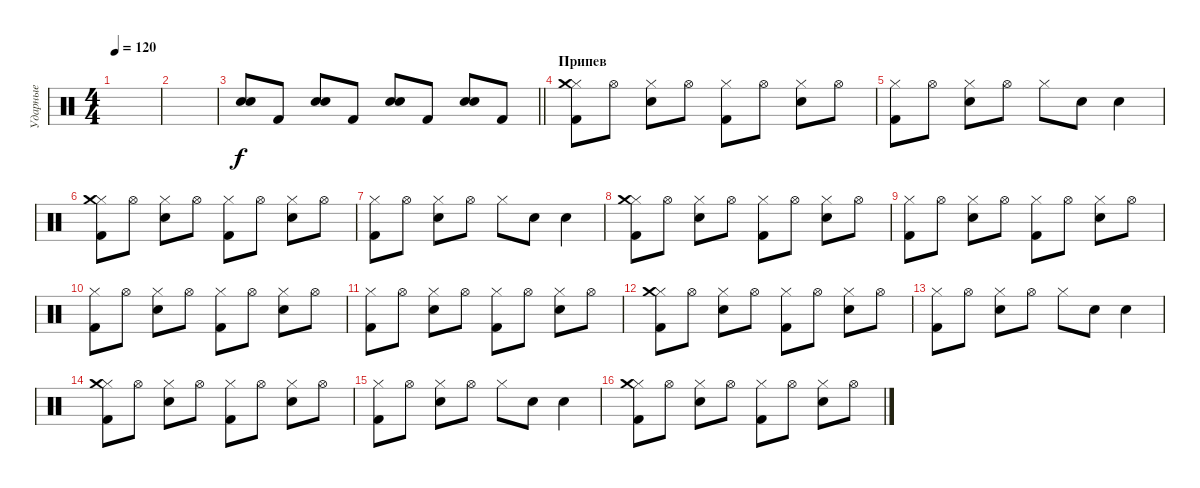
\track ("Ударные" "Ударные") {instrument percussion}
\staff {score}
\articulation defaults
\ts (4 4)
\tempo 120
\clef neutral
\ks c
|
|
\barLineRight lightlight
("Snare (hit) 2" "Snare (hit) 2").8{bd 240} "Kick (hit) 2".8 ("Snare (hit) 2" "Snare (hit) 2").8{bd 240} "Kick (hit) 2".8 ("Snare (hit) 2" "Snare (hit) 2").8{bd 240} "Kick (hit) 2".8 ("Snare (hit) 2" "Snare (hit) 2").8{bd 240} "Kick (hit) 2".8 |
\section ("" "Припев")
("Hi-Hat (closed)" "Kick (hit) 2" "Crash medium (hit)").8 "Hi-Hat (open)".8 ("Hi-Hat (closed)" "Snare (hit) 2").8 "Hi-Hat (open)".8 ("Hi-Hat (closed)" "Kick (hit) 2").8 "Hi-Hat (open)".8 ("Hi-Hat (closed)" "Snare (hit) 2").8 "Hi-Hat (open)".8 |
("Hi-Hat (closed)" "Kick (hit) 2").8 "Hi-Hat (open)".8 ("Hi-Hat (closed)" "Snare (hit) 2").8 "Hi-Hat (open)".8 "Hi-Hat (closed)".8 "Hand Clap (hit)".8 "Hand Clap (hit)".4 |
("Hi-Hat (closed)" "Kick (hit) 2" "Crash medium (hit)").8 "Hi-Hat (open)".8 ("Hi-Hat (closed)" "Snare (hit) 2").8 "Hi-Hat (open)".8 ("Hi-Hat (closed)" "Kick (hit) 2").8 "Hi-Hat (open)".8 ("Hi-Hat (closed)" "Snare (hit) 2").8 "Hi-Hat (open)".8 |
("Hi-Hat (closed)" "Kick (hit) 2").8 "Hi-Hat (open)".8 ("Hi-Hat (closed)" "Snare (hit) 2").8 "Hi-Hat (open)".8 "Hi-Hat (closed)".8 "Hand Clap (hit)".8 "Hand Clap (hit)".4 |
("Hi-Hat (closed)" "Kick (hit) 2" "Crash medium (hit)").8 "Hi-Hat (open)".8 ("Hi-Hat (closed)" "Snare (hit) 2").8 "Hi-Hat (open)".8 ("Hi-Hat (closed)" "Kick (hit) 2").8 "Hi-Hat (open)".8 ("Hi-Hat (closed)" "Snare (hit) 2").8 "Hi-Hat (open)".8 |
("Hi-Hat (closed)" "Kick (hit) 2").8 "Hi-Hat (open)".8 ("Hi-Hat (closed)" "Snare (hit) 2").8 "Hi-Hat (open)".8 ("Hi-Hat (closed)" "Kick (hit) 2").8 "Hi-Hat (open)".8 ("Hi-Hat (closed)" "Snare (hit) 2").8 "Hi-Hat (open)".8 |
("Hi-Hat (closed)" "Kick (hit) 2").8 "Hi-Hat (open)".8 ("Hi-Hat (closed)" "Snare (hit) 2").8 "Hi-Hat (open)".8 ("Hi-Hat (closed)" "Kick (hit) 2").8 "Hi-Hat (open)".8 ("Hi-Hat (closed)" "Snare (hit) 2").8 "Hi-Hat (open)".8 |
("Hi-Hat (closed)" "Kick (hit) 2").8 "Hi-Hat (open)".8 ("Hi-Hat (closed)" "Snare (hit) 2").8 "Hi-Hat (open)".8 ("Hi-Hat (closed)" "Kick (hit) 2").8 "Hi-Hat (open)".8 ("Hi-Hat (closed)" "Snare (hit) 2").8 "Hi-Hat (open)".8 |
("Hi-Hat (closed)" "Kick (hit) 2" "Crash medium (hit)").8 "Hi-Hat (open)".8 ("Hi-Hat (closed)" "Snare (hit) 2").8 "Hi-Hat (open)".8 ("Hi-Hat (closed)" "Kick (hit) 2").8 "Hi-Hat (open)".8 ("Hi-Hat (closed)" "Snare (hit) 2").8 "Hi-Hat (open)".8 |
("Hi-Hat (closed)" "Kick (hit) 2").8 "Hi-Hat (open)".8 ("Hi-Hat (closed)" "Snare (hit) 2").8 "Hi-Hat (open)".8 "Hi-Hat (closed)".8 "Hand Clap (hit)".8 "Hand Clap (hit)".4 |
("Hi-Hat (closed)" "Kick (hit) 2" "Crash medium (hit)").8 "Hi-Hat (open)".8 ("Hi-Hat (closed)" "Snare (hit) 2").8 "Hi-Hat (open)".8 ("Hi-Hat (closed)" "Kick (hit) 2").8 "Hi-Hat (open)".8 ("Hi-Hat (closed)" "Snare (hit) 2").8 "Hi-Hat (open)".8 |
("Hi-Hat (closed)" "Kick (hit) 2").8 "Hi-Hat (open)".8 ("Hi-Hat (closed)" "Snare (hit) 2").8 "Hi-Hat (open)".8 "Hi-Hat (closed)".8 "Hand Clap (hit)".8 "Hand Clap (hit)".4 |
("Hi-Hat (closed)" "Kick (hit) 2" "Crash medium (hit)").8 "Hi-Hat (open)".8 ("Hi-Hat (closed)" "Snare (hit) 2").8 "Hi-Hat (open)".8 ("Hi-Hat (closed)" "Kick (hit) 2").8 "Hi-Hat (open)".8 ("Hi-Hat (closed)" "Snare (hit) 2").8 "Hi-Hat (open)".8
